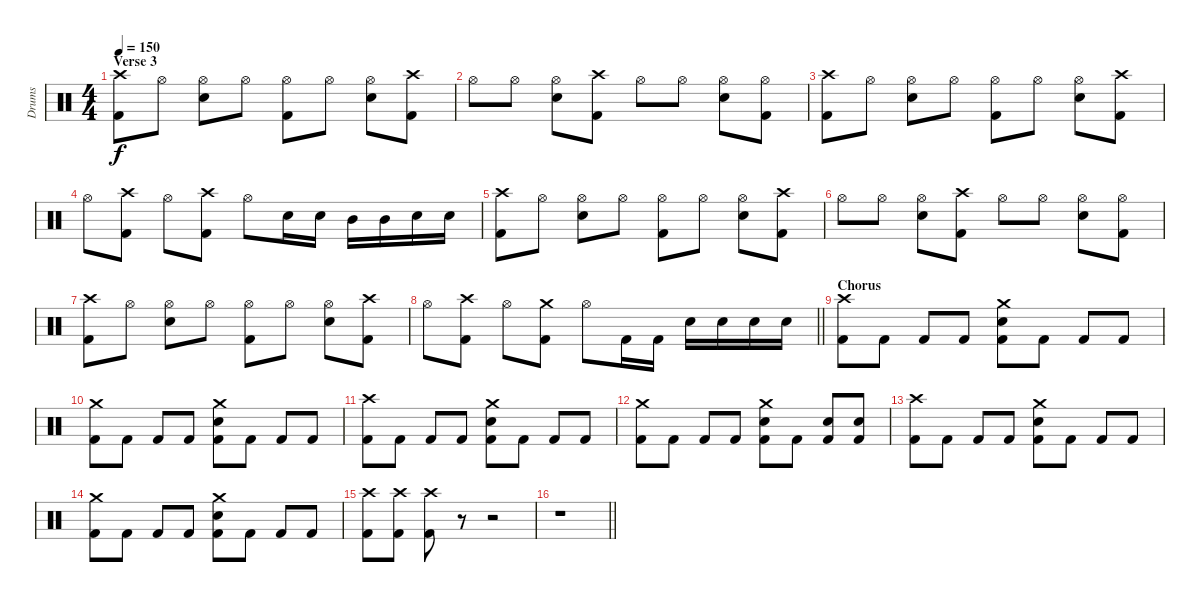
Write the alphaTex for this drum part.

\track ("Drums" "Drums") {instrument percussion}
\staff {score}
\articulation defaults
\ts (4 4)
\section ("" "Verse 3")
\tempo 150
\clef neutral
\ks c
("Crash high (hit)" "Kick (hit) 2").8{dy f} "Hi-Hat (open)".8 ("Hi-Hat (open)" "Electric Snare (hit)").8 "Hi-Hat (open)".8 ("Hi-Hat (open)" "Kick (hit) 2").8 "Hi-Hat (open)".8 ("Hi-Hat (open)" "Electric Snare (hit)").8 ("Crash high (hit)" "Kick (hit) 2").8 |
"Hi-Hat (open)".8 "Hi-Hat (open)".8 ("Hi-Hat (open)" "Electric Snare (hit)").8 ("Crash high (hit)" "Kick (hit) 2").8 "Hi-Hat (open)".8 "Hi-Hat (open)".8 ("Hi-Hat (open)" "Electric Snare (hit)").8 ("Hi-Hat (open)" "Kick (hit) 2").8 |
("Crash high (hit)" "Kick (hit) 2").8 "Hi-Hat (open)".8 ("Hi-Hat (open)" "Electric Snare (hit)").8 "Hi-Hat (open)".8 ("Hi-Hat (open)" "Kick (hit) 2").8 "Hi-Hat (open)".8 ("Hi-Hat (open)" "Electric Snare (hit)").8 ("Crash high (hit)" "Kick (hit) 2").8 |
"Hi-Hat (open)".8 ("Crash high (hit)" "Kick (hit) 2").8 "Hi-Hat (open)".8 ("Crash high (hit)" "Kick (hit) 2").8 "Hi-Hat (open)".8 "Electric Snare (hit)".16 "Electric Snare (hit)".16 "Mid Tom (hit)".16 "Mid Tom (hit)".16 "Electric Snare (hit)".16 "Electric Snare (hit)".16 |
("Crash high (hit)" "Kick (hit) 2").8 "Hi-Hat (open)".8 ("Hi-Hat (open)" "Electric Snare (hit)").8 "Hi-Hat (open)".8 ("Hi-Hat (open)" "Kick (hit) 2").8 "Hi-Hat (open)".8 ("Hi-Hat (open)" "Electric Snare (hit)").8 ("Crash high (hit)" "Kick (hit) 2").8 |
"Hi-Hat (open)".8 "Hi-Hat (open)".8 ("Hi-Hat (open)" "Electric Snare (hit)").8 ("Crash high (hit)" "Kick (hit) 2").8 "Hi-Hat (open)".8 "Hi-Hat (open)".8 ("Hi-Hat (open)" "Electric Snare (hit)").8 ("Hi-Hat (open)" "Kick (hit) 2").8 |
("Crash high (hit)" "Kick (hit) 2").8 "Hi-Hat (open)".8 ("Hi-Hat (open)" "Electric Snare (hit)").8 "Hi-Hat (open)".8 ("Hi-Hat (open)" "Kick (hit) 2").8 "Hi-Hat (open)".8 ("Hi-Hat (open)" "Electric Snare (hit)").8 ("Crash high (hit)" "Kick (hit) 2").8 |
\barLineRight lightlight "Hi-Hat (open)".8
("Crash high (hit)" "Kick (hit) 2").8 "Hi-Hat (open)".8 ("Crash medium (hit)" "Kick (hit) 2").8 "Hi-Hat (open)".8 "Kick (hit) 2".16 "Kick (hit) 2".16 "Electric Snare (hit)".16 "Electric Snare (hit)".16 "Electric Snare (hit)".16 "Electric Snare (hit)".16 |
\section ("" "Chorus")
("Crash high (hit)" "Kick (hit) 2").8 "Kick (hit) 2".8 "Kick (hit) 2".8 "Kick (hit) 2".8 ("Crash medium (hit)" "Electric Snare (hit)" "Kick (hit) 2").8 "Kick (hit) 2".8 "Kick (hit) 2".8 "Kick (hit) 2".8 |
("Crash medium (hit)" "Kick (hit) 2").8 "Kick (hit) 2".8 "Kick (hit) 2".8 "Kick (hit) 2".8 ("Crash medium (hit)" "Electric Snare (hit)" "Kick (hit) 2").8 "Kick (hit) 2".8 "Kick (hit) 2".8 "Kick (hit) 2".8 |
("Crash high (hit)" "Kick (hit) 2").8 "Kick (hit) 2".8 "Kick (hit) 2".8 "Kick (hit) 2".8 ("Crash medium (hit)" "Electric Snare (hit)" "Kick (hit) 2").8 "Kick (hit) 2".8 "Kick (hit) 2".8 "Kick (hit) 2".8 |
("Crash medium (hit)" "Kick (hit) 2").8 "Kick (hit) 2".8 "Kick (hit) 2".8 "Kick (hit) 2".8 ("Crash medium (hit)" "Electric Snare (hit)" "Kick (hit) 2").8 "Kick (hit) 2".8 ("Electric Snare (hit)" "Kick (hit) 2").8 ("Electric Snare (hit)" "Kick (hit) 2").8 |
("Crash high (hit)" "Kick (hit) 2").8 "Kick (hit) 2".8 "Kick (hit) 2".8 "Kick (hit) 2".8 ("Crash medium (hit)" "Electric Snare (hit)" "Kick (hit) 2").8 "Kick (hit) 2".8 "Kick (hit) 2".8 "Kick (hit) 2".8 |
("Crash medium (hit)" "Kick (hit) 2").8 "Kick (hit) 2".8 "Kick (hit) 2".8 "Kick (hit) 2".8 ("Crash medium (hit)" "Electric Snare (hit)" "Kick (hit) 2").8 "Kick (hit) 2".8 "Kick (hit) 2".8 "Kick (hit) 2".8 |
("Crash high (hit)" "Kick (hit) 2").8 ("Crash high (hit)" "Kick (hit) 2").8 ("Crash high (hit)" "Kick (hit) 2").8 r.8{volume 0} r.2 |
\barLineRight lightlight
r.1
